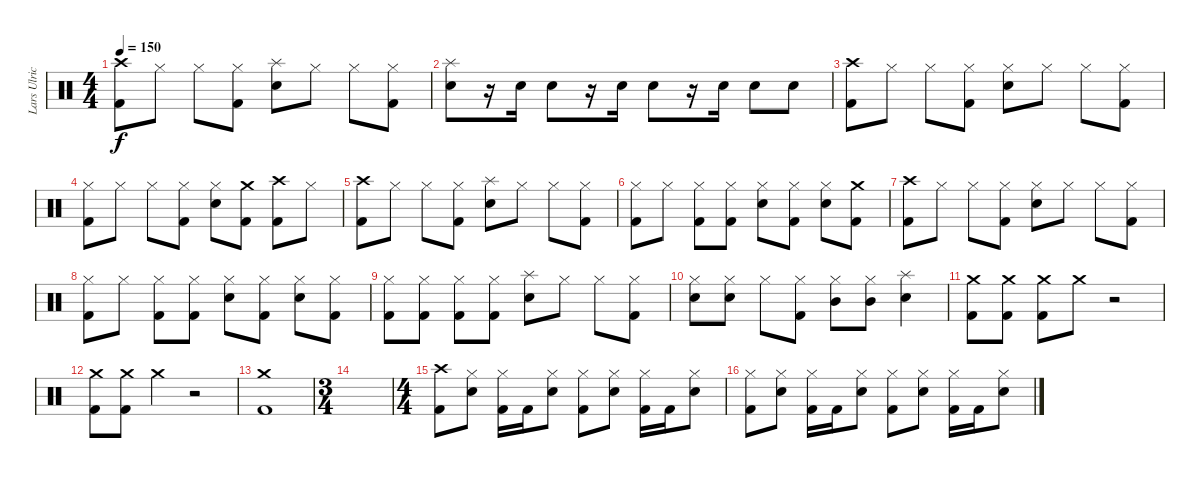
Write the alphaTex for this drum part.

\track ("Lars Ulrich" "Lars Ulric") {instrument percussion}
\staff {score}
\articulation defaults
\ts (4 4)
\tempo 150
\clef neutral
\ks c
("Crash high (hit)" "Kick (hit) 2").8{dy f} "Hi-Hat (closed)".8 "Hi-Hat (closed)".8 ("Hi-Hat (closed)" "Kick (hit) 2").8 ("Splash (hit)" "Snare (hit) 2").8 "Hi-Hat (closed)".8 "Hi-Hat (closed)".8 ("Hi-Hat (closed)" "Kick (hit) 2").8 |
("Splash (hit)" "Snare (hit) 2").8 r.16 "Snare (hit) 2".16 "Snare (hit) 2".8 r.16 "Snare (hit) 2".16 "Snare (hit) 2".8 r.16 "Snare (hit) 2".16 "Snare (hit) 2".8 "Snare (hit) 2".8 |
("Crash high (hit)" "Kick (hit) 2").8 "Hi-Hat (closed)".8 "Hi-Hat (closed)".8 ("Hi-Hat (closed)" "Kick (hit) 2").8 ("Hi-Hat (closed)" "Snare (hit) 2").8 "Hi-Hat (closed)".8 "Hi-Hat (closed)".8 ("Hi-Hat (closed)" "Kick (hit) 2").8 |
("Hi-Hat (closed)" "Kick (hit) 2").8 "Hi-Hat (closed)".8 "Hi-Hat (closed)".8 ("Hi-Hat (closed)" "Kick (hit) 2").8 ("Hi-Hat (closed)" "Snare (hit) 2").8 ("Crash medium (hit)" "Kick (hit) 2").8 ("Crash high (hit)" "Kick (hit) 2").8 "Hi-Hat (closed)".8 |
("Crash high (hit)" "Kick (hit) 2").8 "Hi-Hat (closed)".8 "Hi-Hat (closed)".8 ("Hi-Hat (closed)" "Kick (hit) 2").8 ("Splash (hit)" "Snare (hit) 2").8 "Hi-Hat (closed)".8 "Hi-Hat (closed)".8 ("Hi-Hat (closed)" "Kick (hit) 2").8 |
("Hi-Hat (closed)" "Kick (hit) 2").8 "Hi-Hat (closed)".8 ("Hi-Hat (closed)" "Kick (hit) 2").8 ("Hi-Hat (closed)" "Kick (hit) 2").8 ("Hi-Hat (closed)" "Snare (hit) 2").8 ("Hi-Hat (closed)" "Kick (hit) 2").8 ("Hi-Hat (closed)" "Snare (hit) 2").8 ("Crash medium (hit)" "Kick (hit) 2").8 |
("Crash high (hit)" "Kick (hit) 2").8 "Hi-Hat (closed)".8 "Hi-Hat (closed)".8 ("Hi-Hat (closed)" "Kick (hit) 2").8 ("Hi-Hat (closed)" "Snare (hit) 2").8 "Hi-Hat (closed)".8 "Hi-Hat (closed)".8 ("Hi-Hat (closed)" "Kick (hit) 2").8 |
("Hi-Hat (closed)" "Kick (hit) 2").8 "Hi-Hat (closed)".8 ("Hi-Hat (closed)" "Kick (hit) 2").8 ("Hi-Hat (closed)" "Kick (hit) 2").8 ("Hi-Hat (closed)" "Snare (hit) 2").8 ("Hi-Hat (closed)" "Kick (hit) 2").8 ("Hi-Hat (closed)" "Snare (hit) 2").8 ("Hi-Hat (closed)" "Kick (hit) 2").8 |
("Hi-Hat (closed)" "Kick (hit) 2").8 ("Hi-Hat (closed)" "Kick (hit) 2").8 ("Hi-Hat (closed)" "Kick (hit) 2").8 ("Hi-Hat (closed)" "Kick (hit) 2").8 ("Splash (hit)" "Snare (hit) 2").8 "Hi-Hat (closed)".8 "Hi-Hat (closed)".8 ("Hi-Hat (closed)" "Kick (hit) 2").8 |
("Hi-Hat (closed)" "Snare (hit) 2").8 ("Hi-Hat (closed)" "Snare (hit) 2").8 "Hi-Hat (closed)".8 ("Hi-Hat (closed)" "Kick (hit) 2").8 ("Hi-Hat (closed)" "Mid Tom (hit)").8 ("Hi-Hat (closed)" "Mid Tom (hit)").8 ("Splash (hit)" "Snare (hit) 2").4 |
("Crash medium (hit)" "Kick (hit) 2").8 ("Crash medium (hit)" "Kick (hit) 2").8 ("Crash medium (hit)" "Kick (hit) 2").8 "Crash medium (hit)".8{volume 0} r.2 |
("Crash medium (hit)" "Kick (hit) 2").8{volume 16} ("Crash medium (hit)" "Kick (hit) 2").8 "Crash medium (hit)".4{volume 0} r.2 |
("Crash medium (hit)" "Kick (hit) 2").1{volume 16} |
\ts (3 4)
|
\ts (4 4)
("Crash high (hit)" "Kick (hit) 2").8 ("Hi-Hat (closed)" "Snare (hit) 2").8 ("Hi-Hat (closed)" "Kick (hit) 2").16 "Kick (hit) 2".16 ("Hi-Hat (closed)" "Snare (hit) 2").8 ("Hi-Hat (closed)" "Kick (hit) 2").8 ("Hi-Hat (closed)" "Snare (hit) 2").8 ("Hi-Hat (closed)" "Kick (hit) 2").16 "Kick (hit) 2".16 ("Hi-Hat (closed)" "Snare (hit) 2").8 |
("Hi-Hat (closed)" "Kick (hit) 2").8 ("Hi-Hat (closed)" "Snare (hit) 2").8 ("Hi-Hat (closed)" "Kick (hit) 2").16 "Kick (hit) 2".16 ("Hi-Hat (closed)" "Snare (hit) 2").8 ("Hi-Hat (closed)" "Kick (hit) 2").8 ("Hi-Hat (closed)" "Snare (hit) 2").8 ("Hi-Hat (closed)" "Kick (hit) 2").16 "Kick (hit) 2".16 ("Hi-Hat (closed)" "Snare (hit) 2").8
